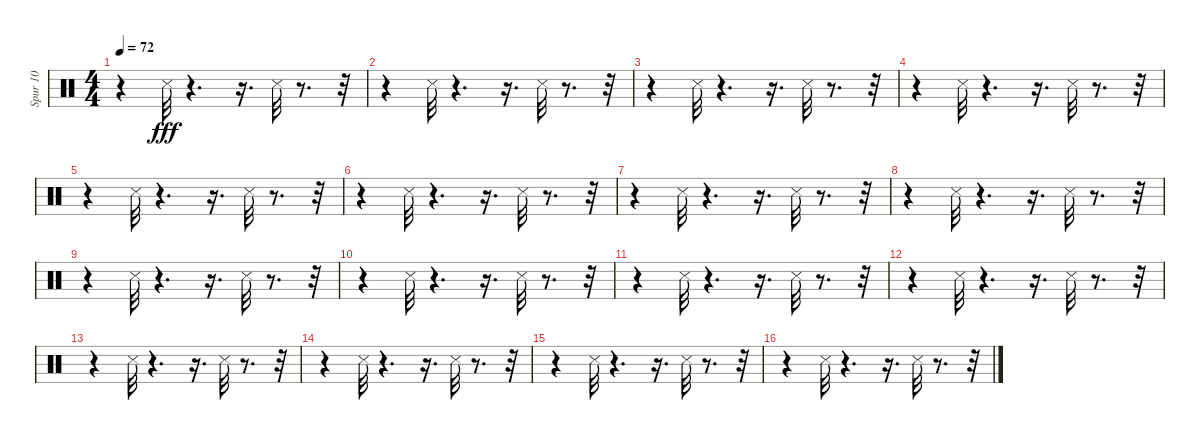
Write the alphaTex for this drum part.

\track ("Spur 10" "Spur 10") {instrument percussion}
\staff {score}
\articulation defaults
\ts (4 4)
\tempo 72
\clef neutral
\ks c
r.4{dy fff} "Snare (side stick) 3".32 r.4{d} r.16{d} "Snare (side stick) 3".32 r.8{d} r.32 |
r.4 "Snare (side stick) 3".32 r.4{d} r.16{d} "Snare (side stick) 3".32 r.8{d} r.32 |
r.4 "Snare (side stick) 3".32 r.4{d} r.16{d} "Snare (side stick) 3".32 r.8{d} r.32 |
r.4 "Snare (side stick) 3".32 r.4{d} r.16{d} "Snare (side stick) 3".32 r.8{d} r.32 |
r.4 "Snare (side stick) 3".32 r.4{d} r.16{d} "Snare (side stick) 3".32 r.8{d} r.32 |
r.4 "Snare (side stick) 3".32 r.4{d} r.16{d} "Snare (side stick) 3".32 r.8{d} r.32 |
r.4 "Snare (side stick) 3".32 r.4{d} r.16{d} "Snare (side stick) 3".32 r.8{d} r.32 |
r.4 "Snare (side stick) 3".32 r.4{d} r.16{d} "Snare (side stick) 3".32 r.8{d} r.32 |
r.4 "Snare (side stick) 3".32 r.4{d} r.16{d} "Snare (side stick) 3".32 r.8{d} r.32 |
r.4 "Snare (side stick) 3".32 r.4{d} r.16{d} "Snare (side stick) 3".32 r.8{d} r.32 |
r.4 "Snare (side stick) 3".32 r.4{d} r.16{d} "Snare (side stick) 3".32 r.8{d} r.32 |
r.4 "Snare (side stick) 3".32 r.4{d} r.16{d} "Snare (side stick) 3".32 r.8{d} r.32 |
r.4 "Snare (side stick) 3".32 r.4{d} r.16{d} "Snare (side stick) 3".32 r.8{d} r.32 |
r.4 "Snare (side stick) 3".32 r.4{d} r.16{d} "Snare (side stick) 3".32 r.8{d} r.32 |
r.4 "Snare (side stick) 3".32 r.4{d} r.16{d} "Snare (side stick) 3".32 r.8{d} r.32 |
r.4 "Snare (side stick) 3".32 r.4{d} r.16{d} "Snare (side stick) 3".32 r.8{d} r.32
